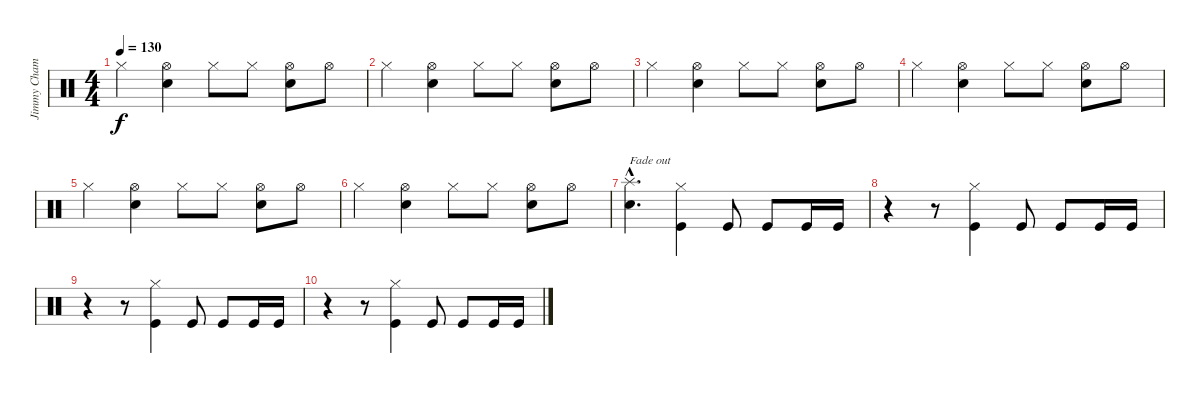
\track ("Jimmy Chamberlin (Drums)" "Jimmy Cham") {instrument percussion}
\staff {score}
\articulation defaults
\ts (4 4)
\tempo 130
\clef neutral
\ks c "Hi-Hat (closed)".4{dy f}
("Snare (hit) 2" "Hi-Hat (open)").4 "Hi-Hat (closed)".8 "Hi-Hat (closed)".8 ("Snare (hit) 2" "Hi-Hat (open)").8 "Hi-Hat (open)".8 |
"Hi-Hat (closed)".4 ("Snare (hit) 2" "Hi-Hat (open)").4 "Hi-Hat (closed)".8 "Hi-Hat (closed)".8 ("Snare (hit) 2" "Hi-Hat (open)").8 "Hi-Hat (open)".8 |
"Hi-Hat (closed)".4 ("Snare (hit) 2" "Hi-Hat (open)").4 "Hi-Hat (closed)".8 "Hi-Hat (closed)".8 ("Snare (hit) 2" "Hi-Hat (open)").8 "Hi-Hat (open)".8 |
"Hi-Hat (closed)".4 ("Snare (hit) 2" "Hi-Hat (open)").4 "Hi-Hat (closed)".8 "Hi-Hat (closed)".8 ("Snare (hit) 2" "Hi-Hat (open)").8 "Hi-Hat (open)".8 |
"Hi-Hat (closed)".4 ("Snare (hit) 2" "Hi-Hat (open)").4 "Hi-Hat (closed)".8 "Hi-Hat (closed)".8 ("Snare (hit) 2" "Hi-Hat (open)").8 "Hi-Hat (open)".8 |
"Hi-Hat (closed)".4 ("Snare (hit) 2" "Hi-Hat (open)").4 "Hi-Hat (closed)".8 "Hi-Hat (closed)".8 ("Snare (hit) 2" "Hi-Hat (open)").8 "Hi-Hat (open)".8 |
("Splash (hit)"{hac} "Snare (hit) 2"{hac}).4{d txt "Fade out"} ("Kick (hit)" "Hi-Hat (closed)").4 "Kick (hit)".8 "Kick (hit)".8 "Kick (hit)".16 "Kick (hit)".16 |
r.4 r.8 ("Kick (hit)" "Hi-Hat (closed)").4 "Kick (hit)".8 "Kick (hit)".8 "Kick (hit)".16 "Kick (hit)".16 |
r.4 r.8 ("Kick (hit)" "Hi-Hat (closed)").4 "Kick (hit)".8 "Kick (hit)".8 "Kick (hit)".16 "Kick (hit)".16 |
r.4 r.8 ("Kick (hit)" "Hi-Hat (closed)").4 "Kick (hit)".8 "Kick (hit)".8 "Kick (hit)".16 "Kick (hit)".16
